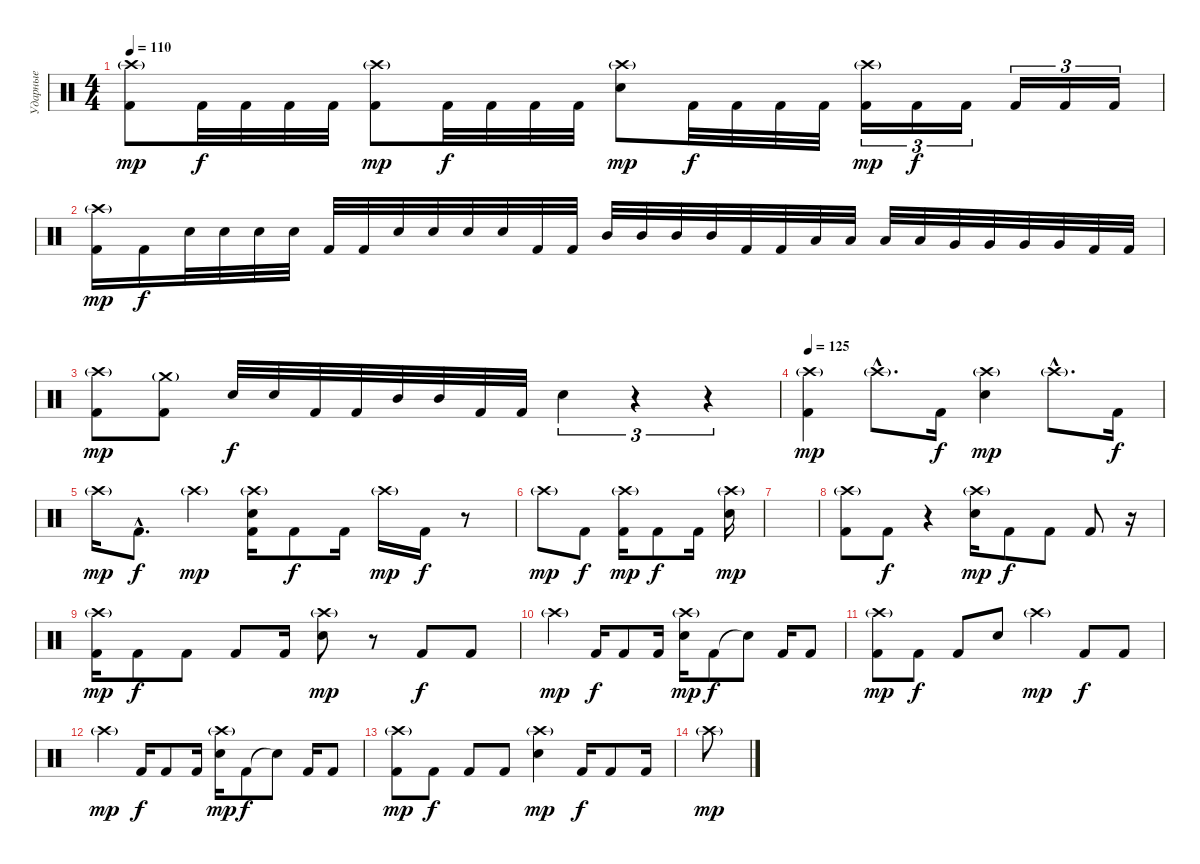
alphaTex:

\track ("Ударные" "Ударные") {instrument percussion}
\staff {score}
\articulation defaults
\ts (4 4)
\tempo 110
\clef neutral
\ks c
("Crash high (hit)"{g} "Kick (hit) 2").8{dy mp} "Kick (hit) 2".32{dy f} "Kick (hit) 2".32 "Kick (hit) 2".32 "Kick (hit) 2".32 ("Crash high (hit)"{g} "Kick (hit) 2").8{dy mp} "Kick (hit) 2".32{dy f} "Kick (hit) 2".32 "Kick (hit) 2".32 "Kick (hit) 2".32 ("Crash high (hit)"{g} "Electric Snare (hit)").8{dy mp} "Kick (hit) 2".32{dy f} "Kick (hit) 2".32 "Kick (hit) 2".32 "Kick (hit) 2".32 ("Crash high (hit)"{g} "Kick (hit) 2").16{tu (3 2) dy mp} "Kick (hit) 2".16{tu (3 2) dy f} "Kick (hit) 2".16{tu (3 2)} "Kick (hit) 2".16{tu (3 2)} "Kick (hit) 2".16{tu (3 2)} "Kick (hit) 2".16{tu (3 2)} |
("Crash high (hit)"{g} "Kick (hit) 2").16{dy mp} "Kick (hit) 2".16{dy f} "Electric Snare (hit)".32 "Electric Snare (hit)".32 "Electric Snare (hit)".32 "Electric Snare (hit)".32 "Kick (hit) 2".32 "Kick (hit) 2".32 "Electric Snare (hit)".32 "Electric Snare (hit)".32 "Electric Snare (hit)".32 "Electric Snare (hit)".32 "Kick (hit) 2".32 "Kick (hit) 2".32 "Mid Tom (hit)".32 "Mid Tom (hit)".32 "Mid Tom (hit)".32 "Mid Tom (hit)".32 "Kick (hit) 2".32 "Kick (hit) 2".32 "Low Tom (hit)".32 "Low Tom (hit)".32 "Low Tom (hit)".32 "Low Tom (hit)".32 "Very Low Tom (hit)".32 "Very Low Tom (hit)".32 "Very Low Tom (hit)".32 "Very Low Tom (hit)".32 "Kick (hit) 2".32 "Kick (hit) 2".32 |
("Crash high (hit)"{g} "Kick (hit) 2").8{dy mp} ("Crash medium (hit)"{g} "Kick (hit) 2").8 "Electric Snare (hit)".32{dy f} "Electric Snare (hit)".32 "Kick (hit) 2".32 "Kick (hit) 2".32 "Mid Tom (hit)".32 "Mid Tom (hit)".32 "Kick (hit) 2".32 "Kick (hit) 2".32 "Electric Snare (hit)".4{tu (3 2)} r.4{tu (3 2)} r.4{tu (3 2)} |
\tempo 125
("Crash high (hit)"{g} "Kick (hit) 2").4{dy mp} "Crash high (hit)"{g hac}.8{d} "Kick (hit) 2".16{dy f} ("Crash high (hit)"{g} "Electric Snare (hit)").4{dy mp} "Crash high (hit)"{g hac}.8{d} "Kick (hit) 2".16{dy f} |
"Crash high (hit)"{g}.16{dy mp} "Kick (hit) 2"{hac}.8{d dy f} "Crash high (hit)"{g}.4{dy mp} ("Crash high (hit)"{g} "Electric Snare (hit)" "Kick (hit) 2").16 "Kick (hit) 2".8{dy f} "Kick (hit) 2".16 "Crash high (hit)"{g}.16{dy mp} "Kick (hit) 2".16{dy f} r.8 |
"Crash high (hit)"{g}.8{dy mp} "Kick (hit) 2".8{dy f} ("Crash high (hit)"{g} "Kick (hit) 2").16{dy mp} "Kick (hit) 2".8{dy f} "Kick (hit) 2".16 ("Crash high (hit)"{g} "Electric Snare (hit)").16{dy mp} |
|
("Crash high (hit)"{g} "Kick (hit) 2").8 "Kick (hit) 2".8{dy f} r.4 ("Crash high (hit)"{g} "Electric Snare (hit)").16{dy mp} "Kick (hit) 2".8{dy f} "Kick (hit) 2".8 "Kick (hit) 2".8 r.16 |
("Crash high (hit)"{g} "Kick (hit) 2").16{dy mp} "Kick (hit) 2".8{dy f} "Kick (hit) 2".8 "Kick (hit) 2".8 "Kick (hit) 2".16 ("Crash high (hit)"{g} "Electric Snare (hit)").8{dy mp} r.8 "Kick (hit) 2".8{dy f} "Kick (hit) 2".8 |
"Crash high (hit)"{g}.4{dy mp} "Kick (hit) 2".16{dy f} "Kick (hit) 2".8 "Kick (hit) 2".16 ("Crash high (hit)"{g} "Electric Snare (hit)").16{dy mp} "Kick (hit) 2".8{dy f} "Snare (hit)"{t}.8 "Kick (hit) 2".16 "Kick (hit) 2".8 |
("Crash high (hit)"{g} "Kick (hit) 2").8{dy mp} "Kick (hit) 2".8{dy f} "Kick (hit) 2".8 "Electric Snare (hit)".8 "Crash high (hit)"{g}.4{dy mp} "Kick (hit) 2".8{dy f} "Kick (hit) 2".8 |
"Crash high (hit)"{g}.4{dy mp} "Kick (hit) 2".16{dy f} "Kick (hit) 2".8 "Kick (hit) 2".16 ("Crash high (hit)"{g} "Electric Snare (hit)").16{dy mp} "Kick (hit) 2".8{dy f} "Snare (hit)"{t}.8 "Kick (hit) 2".16 "Kick (hit) 2".8 |
("Crash high (hit)"{g} "Kick (hit) 2").8{dy mp} "Kick (hit) 2".8{dy f} "Kick (hit) 2".8 "Kick (hit) 2".8 ("Crash high (hit)"{g} "Electric Snare (hit)").4{dy mp} "Kick (hit) 2".16{dy f} "Kick (hit) 2".8 "Kick (hit) 2".16 |
"Crash high (hit)"{g}.8{dy mp}
